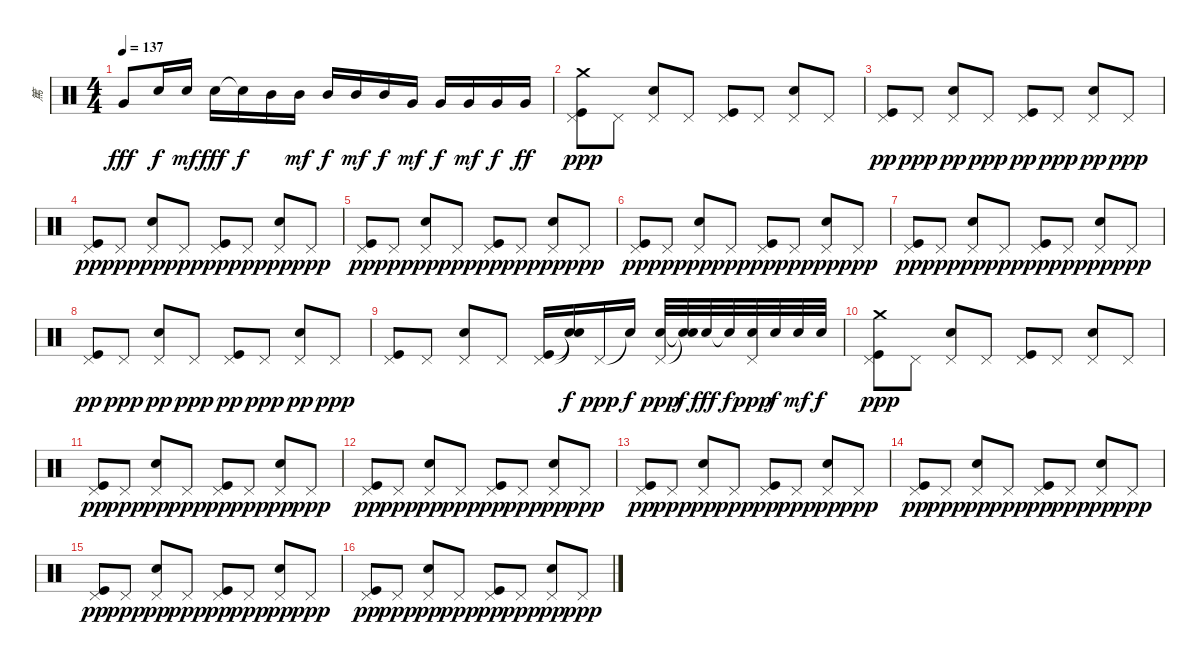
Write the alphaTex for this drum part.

\track ("篤" "篤") {instrument percussion}
\staff {score}
\articulation defaults
\ts (4 4)
\tempo 137
\clef neutral
\ks c "Very Low Tom (hit)".8{dy fff} "Snare (hit) 2".16{dy f} "Snare (hit) 2".16{dy mf} "Snare (hit) 2".16{dy fff} "Snare (hit)"{t}.16{dy f} "Mid Tom (hit)".16 "Mid Tom (hit)".16{dy mf} "Mid Tom (hit)".16{dy f} "Mid Tom (hit)".16{dy mf} "Mid Tom (hit)".16{dy f} "Very Low Tom (hit)".16{dy mf} "Very Low Tom (hit)".16{dy f} "Very Low Tom (hit)".16{dy mf} "Very Low Tom (hit)".16{dy f} "Very Low Tom (hit)".16{dy ff}
|
("Crash medium (hit)" "Kick (hit)" "Pedal Hi-Hat (hit)").8{dy ppp} "Pedal Hi-Hat (hit)".8 ("Snare (hit) 2" "Pedal Hi-Hat (hit)").8 "Pedal Hi-Hat (hit)".8 ("Kick (hit)" "Pedal Hi-Hat (hit)").8 "Pedal Hi-Hat (hit)".8 ("Snare (hit) 2" "Pedal Hi-Hat (hit)").8 "Pedal Hi-Hat (hit)".8 |
("Kick (hit)" "Pedal Hi-Hat (hit)").8{dy pp} "Pedal Hi-Hat (hit)".8{dy ppp} ("Snare (hit) 2" "Pedal Hi-Hat (hit)").8{dy pp} "Pedal Hi-Hat (hit)".8{dy ppp} ("Kick (hit)" "Pedal Hi-Hat (hit)").8{dy pp} "Pedal Hi-Hat (hit)".8{dy ppp} ("Snare (hit) 2" "Pedal Hi-Hat (hit)").8{dy pp} "Pedal Hi-Hat (hit)".8{dy ppp} |
("Kick (hit)" "Pedal Hi-Hat (hit)").8{dy pp} "Pedal Hi-Hat (hit)".8{dy ppp} ("Snare (hit) 2" "Pedal Hi-Hat (hit)").8{dy pp} "Pedal Hi-Hat (hit)".8{dy ppp} ("Kick (hit)" "Pedal Hi-Hat (hit)").8{dy pp} "Pedal Hi-Hat (hit)".8{dy ppp} ("Snare (hit) 2" "Pedal Hi-Hat (hit)").8{dy pp} "Pedal Hi-Hat (hit)".8{dy ppp} |
("Kick (hit)" "Pedal Hi-Hat (hit)").8{dy pp} "Pedal Hi-Hat (hit)".8{dy ppp} ("Snare (hit) 2" "Pedal Hi-Hat (hit)").8{dy pp} "Pedal Hi-Hat (hit)".8{dy ppp} ("Kick (hit)" "Pedal Hi-Hat (hit)").8{dy pp} "Pedal Hi-Hat (hit)".8{dy ppp} ("Snare (hit) 2" "Pedal Hi-Hat (hit)").8{dy pp} "Pedal Hi-Hat (hit)".8{dy ppp} |
("Kick (hit)" "Pedal Hi-Hat (hit)").8{dy pp} "Pedal Hi-Hat (hit)".8{dy ppp} ("Snare (hit) 2" "Pedal Hi-Hat (hit)").8{dy pp} "Pedal Hi-Hat (hit)".8{dy ppp} ("Kick (hit)" "Pedal Hi-Hat (hit)").8{dy pp} "Pedal Hi-Hat (hit)".8{dy ppp} ("Snare (hit) 2" "Pedal Hi-Hat (hit)").8{dy pp} "Pedal Hi-Hat (hit)".8{dy ppp} |
("Kick (hit)" "Pedal Hi-Hat (hit)").8{dy pp} "Pedal Hi-Hat (hit)".8{dy ppp} ("Snare (hit) 2" "Pedal Hi-Hat (hit)").8{dy pp} "Pedal Hi-Hat (hit)".8{dy ppp} ("Kick (hit)" "Pedal Hi-Hat (hit)").8{dy pp} "Pedal Hi-Hat (hit)".8{dy ppp} ("Snare (hit) 2" "Pedal Hi-Hat (hit)").8{dy pp} "Pedal Hi-Hat (hit)".8{dy ppp} |
("Kick (hit)" "Pedal Hi-Hat (hit)").8{dy pp} "Pedal Hi-Hat (hit)".8{dy ppp} ("Snare (hit) 2" "Pedal Hi-Hat (hit)").8{dy pp} "Pedal Hi-Hat (hit)".8{dy ppp} ("Kick (hit)" "Pedal Hi-Hat (hit)").8{dy pp} "Pedal Hi-Hat (hit)".8{dy ppp} ("Snare (hit) 2" "Pedal Hi-Hat (hit)").8{dy pp} "Pedal Hi-Hat (hit)".8{dy ppp} |
("Kick (hit)" "Pedal Hi-Hat (hit)").8 "Pedal Hi-Hat (hit)".8 ("Snare (hit) 2" "Pedal Hi-Hat (hit)").8 "Pedal Hi-Hat (hit)".8 ("Kick (hit)" "Pedal Hi-Hat (hit)").16 ("Snare (hit)"{t} "Snare (hit)"{t}).16{dy f} "Pedal Hi-Hat (hit)".16{dy ppp} "Snare (hit)"{t}.16{dy f} ("Snare (hit) 2" "Pedal Hi-Hat (hit)").32{dy ppp} ("Snare (hit)"{t} "Snare (hit)"{t}).32{dy f} "Snare (hit) 2".32{dy fff} "Snare (hit)"{t}.32{dy f} ("Snare (hit) 2" "Pedal Hi-Hat (hit)").32{dy ppp} "Snare (hit) 2".32{dy f} "Snare (hit) 2".32{dy mf} "Snare (hit) 2".32{dy f} |
("Crash medium (hit)" "Kick (hit)" "Pedal Hi-Hat (hit)").8{dy ppp} "Pedal Hi-Hat (hit)".8 ("Snare (hit) 2" "Pedal Hi-Hat (hit)").8 "Pedal Hi-Hat (hit)".8 ("Kick (hit)" "Pedal Hi-Hat (hit)").8 "Pedal Hi-Hat (hit)".8 ("Snare (hit) 2" "Pedal Hi-Hat (hit)").8 "Pedal Hi-Hat (hit)".8 |
("Kick (hit)" "Pedal Hi-Hat (hit)").8{dy pp} "Pedal Hi-Hat (hit)".8{dy ppp} ("Snare (hit) 2" "Pedal Hi-Hat (hit)").8{dy pp} "Pedal Hi-Hat (hit)".8{dy ppp} ("Kick (hit)" "Pedal Hi-Hat (hit)").8{dy pp} "Pedal Hi-Hat (hit)".8{dy ppp} ("Snare (hit) 2" "Pedal Hi-Hat (hit)").8{dy pp} "Pedal Hi-Hat (hit)".8{dy ppp} |
("Kick (hit)" "Pedal Hi-Hat (hit)").8{dy pp} "Pedal Hi-Hat (hit)".8{dy ppp} ("Snare (hit) 2" "Pedal Hi-Hat (hit)").8{dy pp} "Pedal Hi-Hat (hit)".8{dy ppp} ("Kick (hit)" "Pedal Hi-Hat (hit)").8{dy pp} "Pedal Hi-Hat (hit)".8{dy ppp} ("Snare (hit) 2" "Pedal Hi-Hat (hit)").8{dy pp} "Pedal Hi-Hat (hit)".8{dy ppp} |
("Kick (hit)" "Pedal Hi-Hat (hit)").8{dy pp} "Pedal Hi-Hat (hit)".8{dy ppp} ("Snare (hit) 2" "Pedal Hi-Hat (hit)").8{dy pp} "Pedal Hi-Hat (hit)".8{dy ppp} ("Kick (hit)" "Pedal Hi-Hat (hit)").8{dy pp} "Pedal Hi-Hat (hit)".8{dy ppp} ("Snare (hit) 2" "Pedal Hi-Hat (hit)").8{dy pp} "Pedal Hi-Hat (hit)".8{dy ppp} |
("Kick (hit)" "Pedal Hi-Hat (hit)").8{dy pp} "Pedal Hi-Hat (hit)".8{dy ppp} ("Snare (hit) 2" "Pedal Hi-Hat (hit)").8{dy pp} "Pedal Hi-Hat (hit)".8{dy ppp} ("Kick (hit)" "Pedal Hi-Hat (hit)").8{dy pp} "Pedal Hi-Hat (hit)".8{dy ppp} ("Snare (hit) 2" "Pedal Hi-Hat (hit)").8{dy pp} "Pedal Hi-Hat (hit)".8{dy ppp} |
("Kick (hit)" "Pedal Hi-Hat (hit)").8{dy pp} "Pedal Hi-Hat (hit)".8{dy ppp} ("Snare (hit) 2" "Pedal Hi-Hat (hit)").8{dy pp} "Pedal Hi-Hat (hit)".8{dy ppp} ("Kick (hit)" "Pedal Hi-Hat (hit)").8{dy pp} "Pedal Hi-Hat (hit)".8{dy ppp} ("Snare (hit) 2" "Pedal Hi-Hat (hit)").8{dy pp} "Pedal Hi-Hat (hit)".8{dy ppp} |
("Kick (hit)" "Pedal Hi-Hat (hit)").8{dy pp} "Pedal Hi-Hat (hit)".8{dy ppp} ("Snare (hit) 2" "Pedal Hi-Hat (hit)").8{dy pp} "Pedal Hi-Hat (hit)".8{dy ppp} ("Kick (hit)" "Pedal Hi-Hat (hit)").8{dy pp} "Pedal Hi-Hat (hit)".8{dy ppp} ("Snare (hit) 2" "Pedal Hi-Hat (hit)").8{dy pp} "Pedal Hi-Hat (hit)".8{dy ppp}
